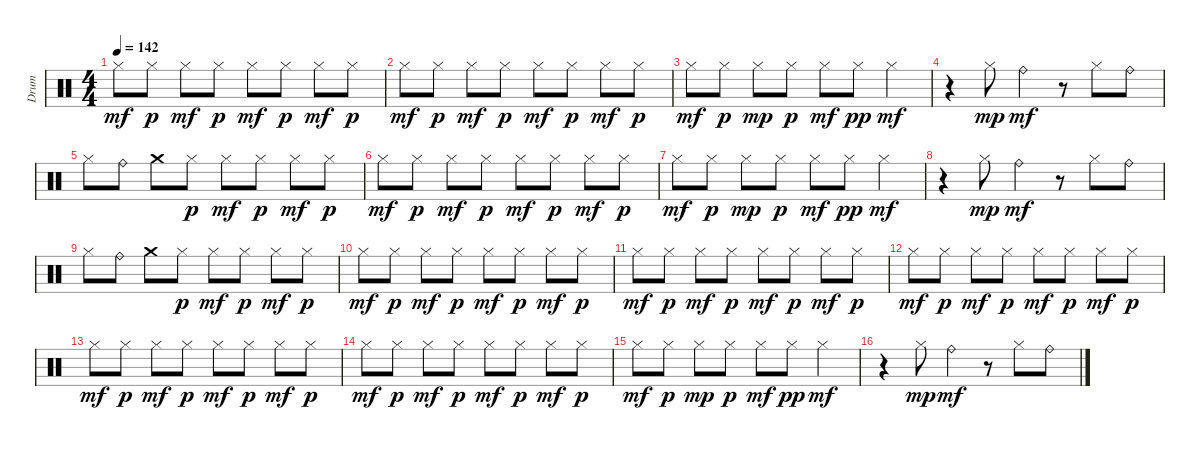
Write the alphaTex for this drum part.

\track ("Drum" "Drum") {instrument percussion}
\staff {score}
\articulation defaults
\ts (4 4)
\tempo 142
\clef neutral
\ks c "Hi-Hat (closed)".8{dy mf} "Hi-Hat (closed)".8{dy p} "Hi-Hat (closed)".8{dy mf} "Hi-Hat (closed)".8{dy p} "Hi-Hat (closed)".8{dy mf} "Hi-Hat (closed)".8{dy p} "Hi-Hat (closed)".8{dy mf} "Hi-Hat (closed)".8{dy p}
|
"Hi-Hat (closed)".8{dy mf} "Hi-Hat (closed)".8{dy p} "Hi-Hat (closed)".8{dy mf} "Hi-Hat (closed)".8{dy p} "Hi-Hat (closed)".8{dy mf} "Hi-Hat (closed)".8{dy p} "Hi-Hat (closed)".8{dy mf} "Hi-Hat (closed)".8{dy p} |
"Hi-Hat (closed)".8{dy mf} "Hi-Hat (closed)".8{dy p} "Hi-Hat (closed)".8{dy mp} "Hi-Hat (closed)".8{dy p} "Hi-Hat (closed)".8{dy mf} "Hi-Hat (closed)".8{dy pp} "Hi-Hat (closed)".4{dy mf} |
r.4 "Hi-Hat (closed)".8{dy mp} "Ride (bell)".4{dy mf} r.8 "Hi-Hat (closed)".8 "Ride (bell)".8 |
"Hi-Hat (closed)".8 "Ride (bell)".8 "Crash medium (hit)".8 "Hi-Hat (closed)".8{dy p} "Hi-Hat (closed)".8{dy mf} "Hi-Hat (closed)".8{dy p} "Hi-Hat (closed)".8{dy mf} "Hi-Hat (closed)".8{dy p} |
"Hi-Hat (closed)".8{dy mf} "Hi-Hat (closed)".8{dy p} "Hi-Hat (closed)".8{dy mf} "Hi-Hat (closed)".8{dy p} "Hi-Hat (closed)".8{dy mf} "Hi-Hat (closed)".8{dy p} "Hi-Hat (closed)".8{dy mf} "Hi-Hat (closed)".8{dy p} |
"Hi-Hat (closed)".8{dy mf} "Hi-Hat (closed)".8{dy p} "Hi-Hat (closed)".8{dy mp} "Hi-Hat (closed)".8{dy p} "Hi-Hat (closed)".8{dy mf} "Hi-Hat (closed)".8{dy pp} "Hi-Hat (closed)".4{dy mf} |
r.4 "Hi-Hat (closed)".8{dy mp} "Ride (bell)".4{dy mf} r.8 "Hi-Hat (closed)".8 "Ride (bell)".8 |
"Hi-Hat (closed)".8 "Ride (bell)".8 "Crash medium (hit)".8 "Hi-Hat (closed)".8{dy p} "Hi-Hat (closed)".8{dy mf} "Hi-Hat (closed)".8{dy p} "Hi-Hat (closed)".8{dy mf} "Hi-Hat (closed)".8{dy p} |
"Hi-Hat (closed)".8{dy mf} "Hi-Hat (closed)".8{dy p} "Hi-Hat (closed)".8{dy mf} "Hi-Hat (closed)".8{dy p} "Hi-Hat (closed)".8{dy mf} "Hi-Hat (closed)".8{dy p} "Hi-Hat (closed)".8{dy mf} "Hi-Hat (closed)".8{dy p} |
"Hi-Hat (closed)".8{dy mf} "Hi-Hat (closed)".8{dy p} "Hi-Hat (closed)".8{dy mf} "Hi-Hat (closed)".8{dy p} "Hi-Hat (closed)".8{dy mf} "Hi-Hat (closed)".8{dy p} "Hi-Hat (closed)".8{dy mf} "Hi-Hat (closed)".8{dy p} |
"Hi-Hat (closed)".8{dy mf} "Hi-Hat (closed)".8{dy p} "Hi-Hat (closed)".8{dy mf} "Hi-Hat (closed)".8{dy p} "Hi-Hat (closed)".8{dy mf} "Hi-Hat (closed)".8{dy p} "Hi-Hat (closed)".8{dy mf} "Hi-Hat (closed)".8{dy p} |
"Hi-Hat (closed)".8{dy mf} "Hi-Hat (closed)".8{dy p} "Hi-Hat (closed)".8{dy mf} "Hi-Hat (closed)".8{dy p} "Hi-Hat (closed)".8{dy mf} "Hi-Hat (closed)".8{dy p} "Hi-Hat (closed)".8{dy mf} "Hi-Hat (closed)".8{dy p} |
"Hi-Hat (closed)".8{dy mf} "Hi-Hat (closed)".8{dy p} "Hi-Hat (closed)".8{dy mf} "Hi-Hat (closed)".8{dy p} "Hi-Hat (closed)".8{dy mf} "Hi-Hat (closed)".8{dy p} "Hi-Hat (closed)".8{dy mf} "Hi-Hat (closed)".8{dy p} |
"Hi-Hat (closed)".8{dy mf} "Hi-Hat (closed)".8{dy p} "Hi-Hat (closed)".8{dy mp} "Hi-Hat (closed)".8{dy p} "Hi-Hat (closed)".8{dy mf} "Hi-Hat (closed)".8{dy pp} "Hi-Hat (closed)".4{dy mf} |
r.4 "Hi-Hat (closed)".8{dy mp} "Ride (bell)".4{dy mf} r.8 "Hi-Hat (closed)".8 "Ride (bell)".8
